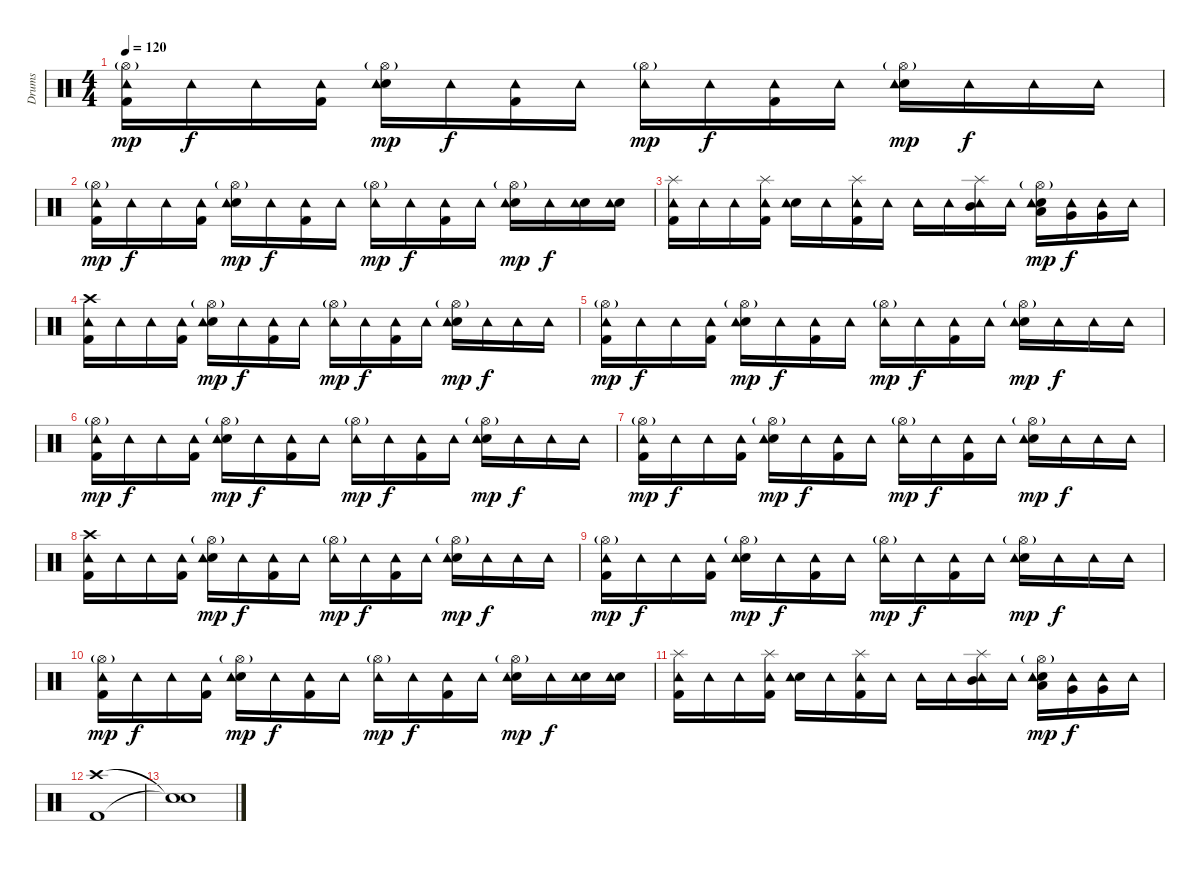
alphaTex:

\track ("Drums" "Drums") {instrument percussion}
\staff {score}
\articulation defaults
\ts (4 4)
\tempo 120
\clef neutral
\ks c
("Hi-Hat (open)"{g} "Kick (hit) 2" "Tambourine (hit)").16{dy mp} "Tambourine (hit)".16{dy f} "Tambourine (hit)".16 ("Kick (hit) 2" "Tambourine (hit)").16 ("Hi-Hat (open)"{g} "Electric Snare (hit)" "Tambourine (hit)").16{dy mp} "Tambourine (hit)".16{dy f} ("Kick (hit) 2" "Tambourine (hit)").16 "Tambourine (hit)".16 ("Hi-Hat (open)"{g} "Tambourine (hit)").16{dy mp} "Tambourine (hit)".16{dy f} ("Kick (hit) 2" "Tambourine (hit)").16 "Tambourine (hit)".16 ("Hi-Hat (open)"{g} "Electric Snare (hit)" "Tambourine (hit)").16{dy mp} "Tambourine (hit)".16{dy f} "Tambourine (hit)".16 "Tambourine (hit)".16 |
("Hi-Hat (open)"{g} "Kick (hit) 2" "Tambourine (hit)").16{dy mp} "Tambourine (hit)".16{dy f} "Tambourine (hit)".16 ("Kick (hit) 2" "Tambourine (hit)").16 ("Hi-Hat (open)"{g} "Electric Snare (hit)" "Tambourine (hit)").16{dy mp} "Tambourine (hit)".16{dy f} ("Kick (hit) 2" "Tambourine (hit)").16 "Tambourine (hit)".16 ("Hi-Hat (open)"{g} "Tambourine (hit)").16{dy mp} "Tambourine (hit)".16{dy f} ("Kick (hit) 2" "Tambourine (hit)").16 "Tambourine (hit)".16 ("Hi-Hat (open)"{g} "Electric Snare (hit)" "Tambourine (hit)").16{dy mp} "Tambourine (hit)".16{dy f} ("Electric Snare (hit)" "Tambourine (hit)").16 ("Electric Snare (hit)" "Tambourine (hit)").16 |
("Splash (hit)" "Kick (hit) 2" "Tambourine (hit)").16 "Tambourine (hit)".16 "Tambourine (hit)".16 ("Splash (hit)" "Kick (hit) 2" "Tambourine (hit)").16 ("Electric Snare (hit)" "Tambourine (hit)").16 "Tambourine (hit)".16 ("Splash (hit)" "Kick (hit) 2" "Tambourine (hit)").16 "Tambourine (hit)".16 "Tambourine (hit)".16 "Tambourine (hit)".16 ("Splash (hit)" "Tambourine (hit)" "Mid Tom (hit)").16 "Tambourine (hit)".16 ("Hi-Hat (open)"{g} "Electric Snare (hit)" "Tambourine (hit)" "Low Tom (hit)").16{dy mp} ("Tambourine (hit)" "Very Low Tom (hit)").16{dy f} ("Tambourine (hit)" "Very Low Tom (hit)").16 "Tambourine (hit)".16 |
("Crash high (hit)" "Kick (hit) 2" "Tambourine (hit)").16 "Tambourine (hit)".16 "Tambourine (hit)".16 ("Kick (hit) 2" "Tambourine (hit)").16 ("Hi-Hat (open)"{g} "Electric Snare (hit)" "Tambourine (hit)").16{dy mp} "Tambourine (hit)".16{dy f} ("Kick (hit) 2" "Tambourine (hit)").16 "Tambourine (hit)".16 ("Hi-Hat (open)"{g} "Tambourine (hit)").16{dy mp} "Tambourine (hit)".16{dy f} ("Kick (hit) 2" "Tambourine (hit)").16 "Tambourine (hit)".16 ("Hi-Hat (open)"{g} "Electric Snare (hit)" "Tambourine (hit)").16{dy mp} "Tambourine (hit)".16{dy f} "Tambourine (hit)".16 "Tambourine (hit)".16 |
("Hi-Hat (open)"{g} "Kick (hit) 2" "Tambourine (hit)").16{dy mp} "Tambourine (hit)".16{dy f} "Tambourine (hit)".16 ("Kick (hit) 2" "Tambourine (hit)").16 ("Hi-Hat (open)"{g} "Electric Snare (hit)" "Tambourine (hit)").16{dy mp} "Tambourine (hit)".16{dy f} ("Kick (hit) 2" "Tambourine (hit)").16 "Tambourine (hit)".16 ("Hi-Hat (open)"{g} "Tambourine (hit)").16{dy mp} "Tambourine (hit)".16{dy f} ("Kick (hit) 2" "Tambourine (hit)").16 "Tambourine (hit)".16 ("Hi-Hat (open)"{g} "Electric Snare (hit)" "Tambourine (hit)").16{dy mp} "Tambourine (hit)".16{dy f} "Tambourine (hit)".16 "Tambourine (hit)".16 |
("Hi-Hat (open)"{g} "Kick (hit) 2" "Tambourine (hit)").16{dy mp} "Tambourine (hit)".16{dy f} "Tambourine (hit)".16 ("Kick (hit) 2" "Tambourine (hit)").16 ("Hi-Hat (open)"{g} "Electric Snare (hit)" "Tambourine (hit)").16{dy mp} "Tambourine (hit)".16{dy f} ("Kick (hit) 2" "Tambourine (hit)").16 "Tambourine (hit)".16 ("Hi-Hat (open)"{g} "Tambourine (hit)").16{dy mp} "Tambourine (hit)".16{dy f} ("Kick (hit) 2" "Tambourine (hit)").16 "Tambourine (hit)".16 ("Hi-Hat (open)"{g} "Electric Snare (hit)" "Tambourine (hit)").16{dy mp} "Tambourine (hit)".16{dy f} "Tambourine (hit)".16 "Tambourine (hit)".16 |
("Hi-Hat (open)"{g} "Kick (hit) 2" "Tambourine (hit)").16{dy mp} "Tambourine (hit)".16{dy f} "Tambourine (hit)".16 ("Kick (hit) 2" "Tambourine (hit)").16 ("Hi-Hat (open)"{g} "Electric Snare (hit)" "Tambourine (hit)").16{dy mp} "Tambourine (hit)".16{dy f} ("Kick (hit) 2" "Tambourine (hit)").16 "Tambourine (hit)".16 ("Hi-Hat (open)"{g} "Tambourine (hit)").16{dy mp} "Tambourine (hit)".16{dy f} ("Kick (hit) 2" "Tambourine (hit)").16 "Tambourine (hit)".16 ("Hi-Hat (open)"{g} "Electric Snare (hit)" "Tambourine (hit)").16{dy mp} "Tambourine (hit)".16{dy f} "Tambourine (hit)".16 "Tambourine (hit)".16 |
("Crash high (hit)" "Kick (hit) 2" "Tambourine (hit)").16 "Tambourine (hit)".16 "Tambourine (hit)".16 ("Kick (hit) 2" "Tambourine (hit)").16 ("Hi-Hat (open)"{g} "Electric Snare (hit)" "Tambourine (hit)").16{dy mp} "Tambourine (hit)".16{dy f} ("Kick (hit) 2" "Tambourine (hit)").16 "Tambourine (hit)".16 ("Hi-Hat (open)"{g} "Tambourine (hit)").16{dy mp} "Tambourine (hit)".16{dy f} ("Kick (hit) 2" "Tambourine (hit)").16 "Tambourine (hit)".16 ("Hi-Hat (open)"{g} "Electric Snare (hit)" "Tambourine (hit)").16{dy mp} "Tambourine (hit)".16{dy f} "Tambourine (hit)".16 "Tambourine (hit)".16 |
("Hi-Hat (open)"{g} "Kick (hit) 2" "Tambourine (hit)").16{dy mp} "Tambourine (hit)".16{dy f} "Tambourine (hit)".16 ("Kick (hit) 2" "Tambourine (hit)").16 ("Hi-Hat (open)"{g} "Electric Snare (hit)" "Tambourine (hit)").16{dy mp} "Tambourine (hit)".16{dy f} ("Kick (hit) 2" "Tambourine (hit)").16 "Tambourine (hit)".16 ("Hi-Hat (open)"{g} "Tambourine (hit)").16{dy mp} "Tambourine (hit)".16{dy f} ("Kick (hit) 2" "Tambourine (hit)").16 "Tambourine (hit)".16 ("Hi-Hat (open)"{g} "Electric Snare (hit)" "Tambourine (hit)").16{dy mp} "Tambourine (hit)".16{dy f} "Tambourine (hit)".16 "Tambourine (hit)".16 |
("Hi-Hat (open)"{g} "Kick (hit) 2" "Tambourine (hit)").16{dy mp} "Tambourine (hit)".16{dy f} "Tambourine (hit)".16 ("Kick (hit) 2" "Tambourine (hit)").16 ("Hi-Hat (open)"{g} "Electric Snare (hit)" "Tambourine (hit)").16{dy mp} "Tambourine (hit)".16{dy f} ("Kick (hit) 2" "Tambourine (hit)").16 "Tambourine (hit)".16 ("Hi-Hat (open)"{g} "Tambourine (hit)").16{dy mp} "Tambourine (hit)".16{dy f} ("Kick (hit) 2" "Tambourine (hit)").16 "Tambourine (hit)".16 ("Hi-Hat (open)"{g} "Electric Snare (hit)" "Tambourine (hit)").16{dy mp} "Tambourine (hit)".16{dy f} ("Electric Snare (hit)" "Tambourine (hit)").16 ("Electric Snare (hit)" "Tambourine (hit)").16 |
("Splash (hit)" "Kick (hit) 2" "Tambourine (hit)").16 "Tambourine (hit)".16 "Tambourine (hit)".16 ("Splash (hit)" "Kick (hit) 2" "Tambourine (hit)").16 ("Electric Snare (hit)" "Tambourine (hit)").16 "Tambourine (hit)".16 ("Splash (hit)" "Kick (hit) 2" "Tambourine (hit)").16 "Tambourine (hit)".16 "Tambourine (hit)".16 "Tambourine (hit)".16 ("Splash (hit)" "Tambourine (hit)" "Mid Tom (hit)").16 "Tambourine (hit)".16 ("Hi-Hat (open)"{g} "Electric Snare (hit)" "Tambourine (hit)" "Low Tom (hit)").16{dy mp} ("Tambourine (hit)" "Very Low Tom (hit)").16{dy f} ("Tambourine (hit)" "Very Low Tom (hit)").16 "Tambourine (hit)".16 |
("Crash high (hit)" "Kick (hit) 2").1 |
("Snare (hit)"{t} "Snare (hit)"{t}).1
